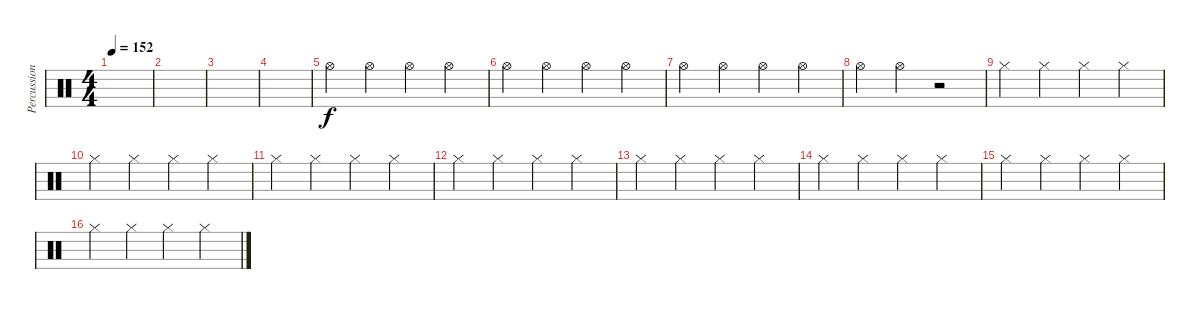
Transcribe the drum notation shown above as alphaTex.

\track ("Percussion" "Percussion") {instrument percussion}
\staff {score}
\articulation defaults
\ts (4 4)
\tempo 152
\clef neutral
\ks c
|
|
|
|
"Hi-Hat (open)".4 "Hi-Hat (open)".4 "Hi-Hat (open)".4 "Hi-Hat (open)".4 |
"Hi-Hat (open)".4 "Hi-Hat (open)".4 "Hi-Hat (open)".4 "Hi-Hat (open)".4 |
"Hi-Hat (open)".4 "Hi-Hat (open)".4 "Hi-Hat (open)".4 "Hi-Hat (open)".4 |
"Hi-Hat (open)".4 "Hi-Hat (open)".4 r.2 |
"Hi-Hat (closed)".4 "Hi-Hat (closed)".4 "Hi-Hat (closed)".4 "Hi-Hat (closed)".4 |
"Hi-Hat (closed)".4 "Hi-Hat (closed)".4 "Hi-Hat (closed)".4 "Hi-Hat (closed)".4 |
"Hi-Hat (closed)".4 "Hi-Hat (closed)".4 "Hi-Hat (closed)".4 "Hi-Hat (closed)".4 |
"Hi-Hat (closed)".4 "Hi-Hat (closed)".4 "Hi-Hat (closed)".4 "Hi-Hat (closed)".4 |
"Hi-Hat (closed)".4 "Hi-Hat (closed)".4 "Hi-Hat (closed)".4 "Hi-Hat (closed)".4 |
"Hi-Hat (closed)".4 "Hi-Hat (closed)".4 "Hi-Hat (closed)".4 "Hi-Hat (closed)".4 |
"Hi-Hat (closed)".4 "Hi-Hat (closed)".4 "Hi-Hat (closed)".4 "Hi-Hat (closed)".4 |
"Hi-Hat (closed)".4 "Hi-Hat (closed)".4 "Hi-Hat (closed)".4 "Hi-Hat (closed)".4
